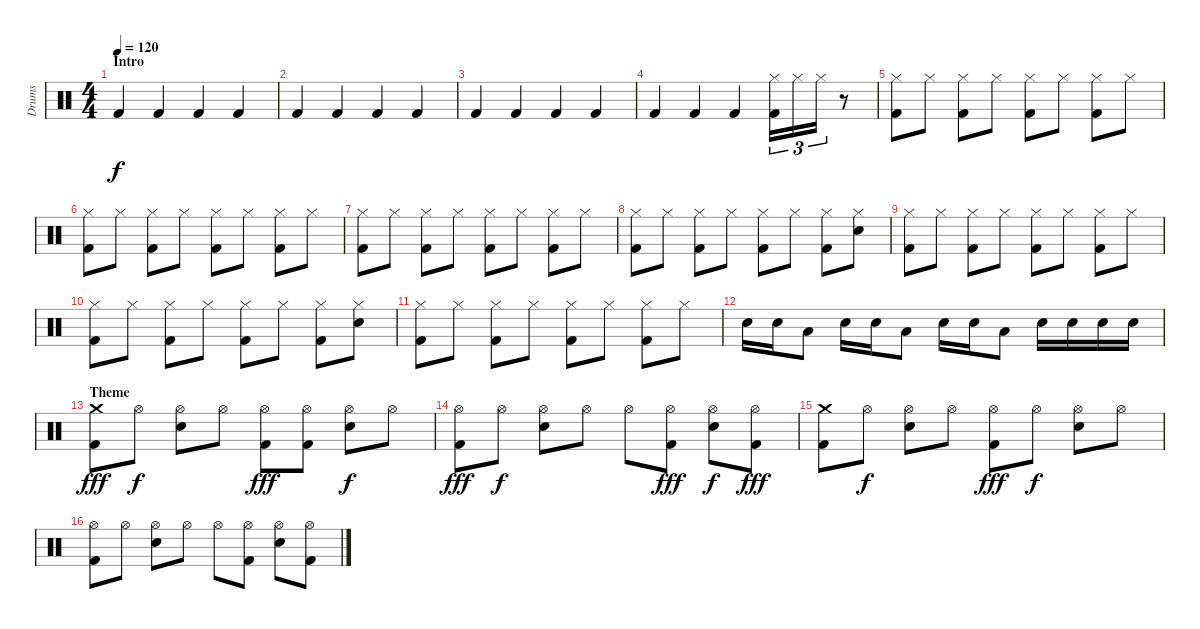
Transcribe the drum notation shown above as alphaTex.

\track ("Drums" "Drums") {instrument percussion}
\staff {score}
\articulation defaults
\ts (4 4)
\section ("" "Intro")
\tempo 120
\clef neutral
\ks c "Kick (hit) 2".4{dy f} "Kick (hit) 2".4 "Kick (hit) 2".4 "Kick (hit) 2".4
|
"Kick (hit) 2".4 "Kick (hit) 2".4 "Kick (hit) 2".4 "Kick (hit) 2".4 |
"Kick (hit) 2".4 "Kick (hit) 2".4 "Kick (hit) 2".4 "Kick (hit) 2".4 |
"Kick (hit) 2".4 "Kick (hit) 2".4 "Kick (hit) 2".4 ("Kick (hit) 2" "Hi-Hat (closed)").16{tu (3 2)} "Hi-Hat (closed)".16{tu (3 2)} "Hi-Hat (closed)".16{tu (3 2)} r.8 |
("Kick (hit) 2" "Hi-Hat (closed)").8 "Hi-Hat (closed)".8 ("Kick (hit) 2" "Hi-Hat (closed)").8 "Hi-Hat (closed)".8 ("Kick (hit) 2" "Hi-Hat (closed)").8 "Hi-Hat (closed)".8 ("Kick (hit) 2" "Hi-Hat (closed)").8 "Hi-Hat (closed)".8 |
("Kick (hit) 2" "Hi-Hat (closed)").8 "Hi-Hat (closed)".8 ("Kick (hit) 2" "Hi-Hat (closed)").8 "Hi-Hat (closed)".8 ("Kick (hit) 2" "Hi-Hat (closed)").8 "Hi-Hat (closed)".8 ("Kick (hit) 2" "Hi-Hat (closed)").8 "Hi-Hat (closed)".8 |
("Kick (hit) 2" "Hi-Hat (closed)").8 "Hi-Hat (closed)".8 ("Kick (hit) 2" "Hi-Hat (closed)").8 "Hi-Hat (closed)".8 ("Kick (hit) 2" "Hi-Hat (closed)").8 "Hi-Hat (closed)".8 ("Kick (hit) 2" "Hi-Hat (closed)").8 "Hi-Hat (closed)".8 |
("Kick (hit) 2" "Hi-Hat (closed)").8 "Hi-Hat (closed)".8 ("Kick (hit) 2" "Hi-Hat (closed)").8 "Hi-Hat (closed)".8 ("Kick (hit) 2" "Hi-Hat (closed)").8 "Hi-Hat (closed)".8 ("Kick (hit) 2" "Hi-Hat (closed)").8 ("Snare (hit) 2" "Hi-Hat (closed)").8 |
("Kick (hit) 2" "Hi-Hat (closed)").8 "Hi-Hat (closed)".8 ("Kick (hit) 2" "Hi-Hat (closed)").8 "Hi-Hat (closed)".8 ("Kick (hit) 2" "Hi-Hat (closed)").8 "Hi-Hat (closed)".8 ("Kick (hit) 2" "Hi-Hat (closed)").8 "Hi-Hat (closed)".8 |
("Kick (hit) 2" "Hi-Hat (closed)").8 "Hi-Hat (closed)".8 ("Kick (hit) 2" "Hi-Hat (closed)").8 "Hi-Hat (closed)".8 ("Kick (hit) 2" "Hi-Hat (closed)").8 "Hi-Hat (closed)".8 ("Kick (hit) 2" "Hi-Hat (closed)").8 ("Snare (hit) 2" "Hi-Hat (closed)").8 |
("Kick (hit) 2" "Hi-Hat (closed)").8 "Hi-Hat (closed)".8 ("Kick (hit) 2" "Hi-Hat (closed)").8 "Hi-Hat (closed)".8 ("Kick (hit) 2" "Hi-Hat (closed)").8 "Hi-Hat (closed)".8 ("Kick (hit) 2" "Hi-Hat (closed)").8 "Hi-Hat (closed)".8 |
"Snare (hit) 2".16 "Snare (hit) 2".16 "Low Tom (hit)".8 "Snare (hit) 2".16 "Snare (hit) 2".16 "Low Tom (hit)".8 "Snare (hit) 2".16 "Snare (hit) 2".16 "Low Tom (hit)".8 "Snare (hit) 2".16 "Snare (hit) 2".16 "Snare (hit) 2".16 "Snare (hit) 2".16 |
\section ("" "Theme")
("Kick (hit) 2" "Crash medium (hit)").8{dy fff} "Hi-Hat (open)".8{dy f} ("Snare (hit) 2" "Hi-Hat (open)").8 "Hi-Hat (open)".8 ("Kick (hit) 2" "Hi-Hat (open)").8{dy fff} ("Kick (hit) 2" "Hi-Hat (open)").8 ("Snare (hit) 2" "Hi-Hat (open)").8{dy f} "Hi-Hat (open)".8 |
("Kick (hit) 2" "Hi-Hat (open)").8{dy fff} "Hi-Hat (open)".8{dy f} ("Snare (hit) 2" "Hi-Hat (open)").8 "Hi-Hat (open)".8 "Hi-Hat (open)".8 ("Kick (hit) 2" "Hi-Hat (open)").8{dy fff} ("Snare (hit) 2" "Hi-Hat (open)").8{dy f} ("Kick (hit) 2" "Hi-Hat (open)").8{dy fff} |
("Kick (hit) 2" "Crash medium (hit)").8 "Hi-Hat (open)".8{dy f} ("Snare (hit) 2" "Hi-Hat (open)").8 "Hi-Hat (open)".8 ("Kick (hit) 2" "Hi-Hat (open)").8{dy fff} "Hi-Hat (open)".8{dy f} ("Snare (hit) 2" "Hi-Hat (open)").8 "Hi-Hat (open)".8 |
("Kick (hit) 2" "Hi-Hat (open)").8 "Hi-Hat (open)".8 ("Snare (hit) 2" "Hi-Hat (open)").8 "Hi-Hat (open)".8 "Hi-Hat (open)".8 ("Kick (hit) 2" "Hi-Hat (open)").8 ("Snare (hit) 2" "Hi-Hat (open)").8 ("Kick (hit) 2" "Hi-Hat (open)").8
